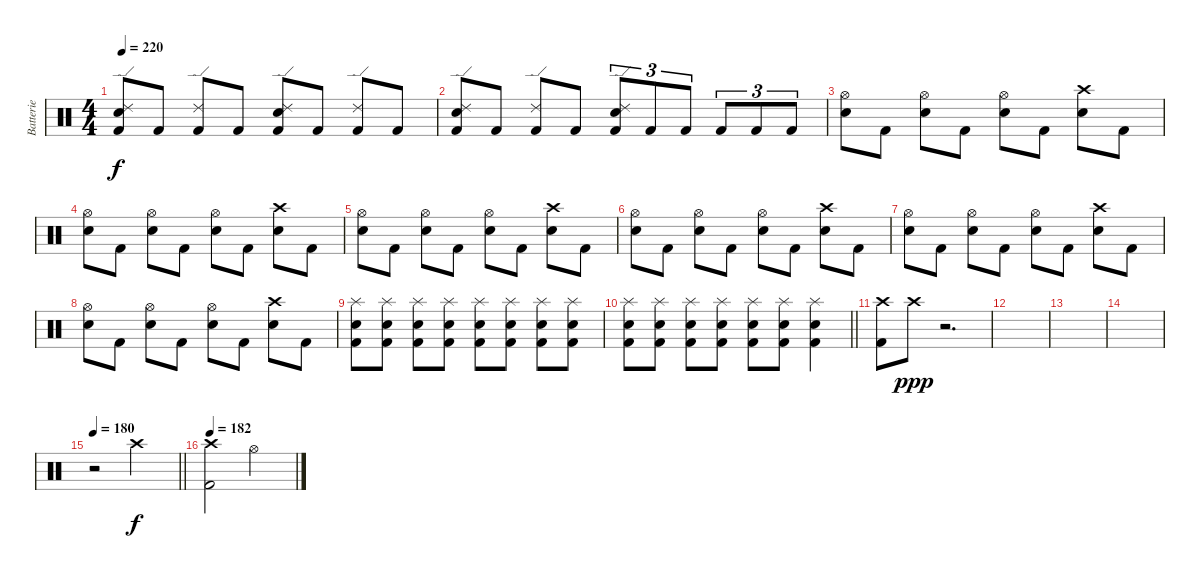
\track ("Batterie" "Batterie") {instrument percussion}
\staff {score}
\articulation defaults
\ts (4 4)
\tempo 220
\clef neutral
\ks c
("Ride (edge) 2" "Electric Snare (hit)" "Kick (hit) 2").8{dy f} "Kick (hit) 2".8 ("Ride (edge) 2" "Kick (hit) 2").8 "Kick (hit) 2".8 ("Ride (edge) 2" "Electric Snare (hit)" "Kick (hit) 2").8 "Kick (hit) 2".8 ("Ride (edge) 2" "Kick (hit) 2").8 "Kick (hit) 2".8 |
("Ride (edge) 2" "Electric Snare (hit)" "Kick (hit) 2").8 "Kick (hit) 2".8 ("Ride (edge) 2" "Kick (hit) 2").8 "Kick (hit) 2".8 ("Ride (edge) 2" "Electric Snare (hit)" "Kick (hit) 2").8{tu (3 2)} "Kick (hit) 2".8{tu (3 2)} "Kick (hit) 2".8{tu (3 2)} "Kick (hit) 2".8{tu (3 2)} "Kick (hit) 2".8{tu (3 2)} "Kick (hit) 2".8{tu (3 2)} |
("Hi-Hat (open)" "Electric Snare (hit)").8 "Kick (hit) 2".8 ("Hi-Hat (open)" "Electric Snare (hit)").8 "Kick (hit) 2".8 ("Hi-Hat (open)" "Electric Snare (hit)").8 "Kick (hit) 2".8 ("Crash high (hit)" "Electric Snare (hit)").8 "Kick (hit) 2".8 |
("Hi-Hat (open)" "Electric Snare (hit)").8 "Kick (hit) 2".8 ("Hi-Hat (open)" "Electric Snare (hit)").8 "Kick (hit) 2".8 ("Hi-Hat (open)" "Electric Snare (hit)").8 "Kick (hit) 2".8 ("Crash high (hit)" "Electric Snare (hit)").8 "Kick (hit) 2".8 |
("Hi-Hat (open)" "Electric Snare (hit)").8 "Kick (hit) 2".8 ("Hi-Hat (open)" "Electric Snare (hit)").8 "Kick (hit) 2".8 ("Hi-Hat (open)" "Electric Snare (hit)").8 "Kick (hit) 2".8 ("Crash high (hit)" "Electric Snare (hit)").8 "Kick (hit) 2".8 |
("Hi-Hat (open)" "Electric Snare (hit)").8 "Kick (hit) 2".8 ("Hi-Hat (open)" "Electric Snare (hit)").8 "Kick (hit) 2".8 ("Hi-Hat (open)" "Electric Snare (hit)").8 "Kick (hit) 2".8 ("Crash high (hit)" "Electric Snare (hit)").8 "Kick (hit) 2".8 |
("Hi-Hat (open)" "Electric Snare (hit)").8 "Kick (hit) 2".8 ("Hi-Hat (open)" "Electric Snare (hit)").8 "Kick (hit) 2".8 ("Hi-Hat (open)" "Electric Snare (hit)").8 "Kick (hit) 2".8 ("Crash high (hit)" "Electric Snare (hit)").8 "Kick (hit) 2".8 |
("Hi-Hat (open)" "Electric Snare (hit)").8 "Kick (hit) 2".8 ("Hi-Hat (open)" "Electric Snare (hit)").8 "Kick (hit) 2".8 ("Hi-Hat (open)" "Electric Snare (hit)").8 "Kick (hit) 2".8 ("Crash high (hit)" "Electric Snare (hit)").8 "Kick (hit) 2".8 |
("Splash (hit)" "Electric Snare (hit)" "Kick (hit) 2").8 ("Splash (hit)" "Electric Snare (hit)" "Kick (hit) 2").8 ("Splash (hit)" "Electric Snare (hit)" "Kick (hit) 2").8 ("Splash (hit)" "Electric Snare (hit)" "Kick (hit) 2").8 ("Splash (hit)" "Electric Snare (hit)" "Kick (hit) 2").8 ("Splash (hit)" "Electric Snare (hit)" "Kick (hit) 2").8 ("Splash (hit)" "Electric Snare (hit)" "Kick (hit) 2").8 ("Splash (hit)" "Electric Snare (hit)" "Kick (hit) 2").8 |
\barLineRight lightlight
("Splash (hit)" "Electric Snare (hit)" "Kick (hit) 2").8 ("Splash (hit)" "Electric Snare (hit)" "Kick (hit) 2").8 ("Splash (hit)" "Electric Snare (hit)" "Kick (hit) 2").8 ("Splash (hit)" "Electric Snare (hit)" "Kick (hit) 2").8 ("Splash (hit)" "Electric Snare (hit)" "Kick (hit) 2").8 ("Splash (hit)" "Electric Snare (hit)" "Kick (hit) 2").8 ("Splash (hit)" "Electric Snare (hit)" "Kick (hit) 2").4 |
("Crash high (hit)" "Kick (hit) 2").8 "Crash high (hit)".8{dy ppp} r.2{d} |
|
|
|
\tempo 180
\barLineRight lightlight
r.2 "Crash high (hit)".2{dy f} |
\tempo 182
("Crash high (hit)" "Kick (hit) 2").2 "Hi-Hat (open)".2
